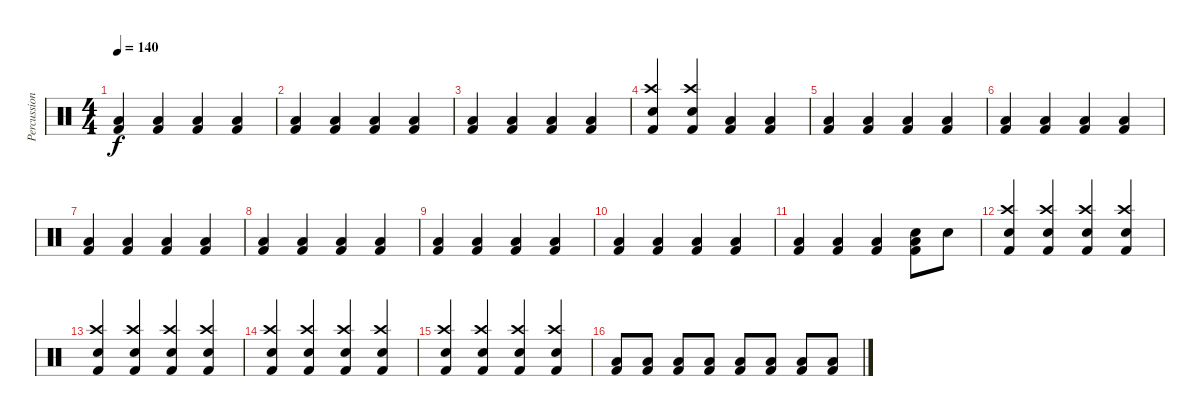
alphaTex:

\track ("Percussion" "Percussion") {instrument percussion}
\staff {score}
\articulation defaults
\ts (4 4)
\tempo 140
\clef neutral
\ks c
("Low Tom (hit)" "Kick (hit) 2").4{dy f} ("Low Tom (hit)" "Kick (hit) 2").4 ("Low Tom (hit)" "Kick (hit) 2").4 ("Low Tom (hit)" "Kick (hit) 2").4 |
("Low Tom (hit)" "Kick (hit) 2").4 ("Low Tom (hit)" "Kick (hit) 2").4 ("Low Tom (hit)" "Kick (hit) 2").4 ("Low Tom (hit)" "Kick (hit) 2").4 |
("Low Tom (hit)" "Kick (hit) 2").4 ("Low Tom (hit)" "Kick (hit) 2").4 ("Low Tom (hit)" "Kick (hit) 2").4 ("Low Tom (hit)" "Kick (hit) 2").4 |
("Crash high (hit)" "Electric Snare (hit)" "Kick (hit) 2").4 ("Crash high (hit)" "Electric Snare (hit)" "Kick (hit) 2").4 ("Low Tom (hit)" "Kick (hit) 2").4 ("Low Tom (hit)" "Kick (hit) 2").4 |
("Low Tom (hit)" "Kick (hit) 2").4 ("Low Tom (hit)" "Kick (hit) 2").4 ("Low Tom (hit)" "Kick (hit) 2").4 ("Low Tom (hit)" "Kick (hit) 2").4 |
("Low Tom (hit)" "Kick (hit) 2").4 ("Low Tom (hit)" "Kick (hit) 2").4 ("Low Tom (hit)" "Kick (hit) 2").4 ("Low Tom (hit)" "Kick (hit) 2").4 |
("Low Tom (hit)" "Kick (hit) 2").4 ("Low Tom (hit)" "Kick (hit) 2").4 ("Low Tom (hit)" "Kick (hit) 2").4 ("Low Tom (hit)" "Kick (hit) 2").4 |
("Low Tom (hit)" "Kick (hit) 2").4 ("Low Tom (hit)" "Kick (hit) 2").4 ("Low Tom (hit)" "Kick (hit) 2").4 ("Low Tom (hit)" "Kick (hit) 2").4 |
("Low Tom (hit)" "Kick (hit) 2").4 ("Low Tom (hit)" "Kick (hit) 2").4 ("Low Tom (hit)" "Kick (hit) 2").4 ("Low Tom (hit)" "Kick (hit) 2").4 |
("Low Tom (hit)" "Kick (hit) 2").4 ("Low Tom (hit)" "Kick (hit) 2").4 ("Low Tom (hit)" "Kick (hit) 2").4 ("Low Tom (hit)" "Kick (hit) 2").4 |
("Low Tom (hit)" "Kick (hit) 2").4 ("Low Tom (hit)" "Kick (hit) 2").4 ("Low Tom (hit)" "Kick (hit) 2").4 ("Electric Snare (hit)" "Low Tom (hit)" "Kick (hit) 2").8 "Electric Snare (hit)".8 |
("Crash high (hit)" "Electric Snare (hit)" "Kick (hit) 2").4 ("Crash high (hit)" "Electric Snare (hit)" "Kick (hit) 2").4 ("Crash high (hit)" "Electric Snare (hit)" "Kick (hit) 2").4 ("Crash high (hit)" "Electric Snare (hit)" "Kick (hit) 2").4 |
("Crash high (hit)" "Electric Snare (hit)" "Kick (hit) 2").4 ("Crash high (hit)" "Electric Snare (hit)" "Kick (hit) 2").4 ("Crash high (hit)" "Electric Snare (hit)" "Kick (hit) 2").4 ("Crash high (hit)" "Electric Snare (hit)" "Kick (hit) 2").4 |
("Crash high (hit)" "Electric Snare (hit)" "Kick (hit) 2").4 ("Crash high (hit)" "Electric Snare (hit)" "Kick (hit) 2").4 ("Crash high (hit)" "Electric Snare (hit)" "Kick (hit) 2").4 ("Crash high (hit)" "Electric Snare (hit)" "Kick (hit) 2").4 |
("Crash high (hit)" "Electric Snare (hit)" "Kick (hit) 2").4 ("Crash high (hit)" "Electric Snare (hit)" "Kick (hit) 2").4 ("Crash high (hit)" "Electric Snare (hit)" "Kick (hit) 2").4 ("Crash high (hit)" "Electric Snare (hit)" "Kick (hit) 2").4 |
("Low Tom (hit)" "Kick (hit) 2").8 ("Low Tom (hit)" "Kick (hit) 2").8 ("Low Tom (hit)" "Kick (hit) 2").8 ("Low Tom (hit)" "Kick (hit) 2").8 ("Low Tom (hit)" "Kick (hit) 2").8 ("Low Tom (hit)" "Kick (hit) 2").8 ("Low Tom (hit)" "Kick (hit) 2").8 ("Low Tom (hit)" "Kick (hit) 2").8
